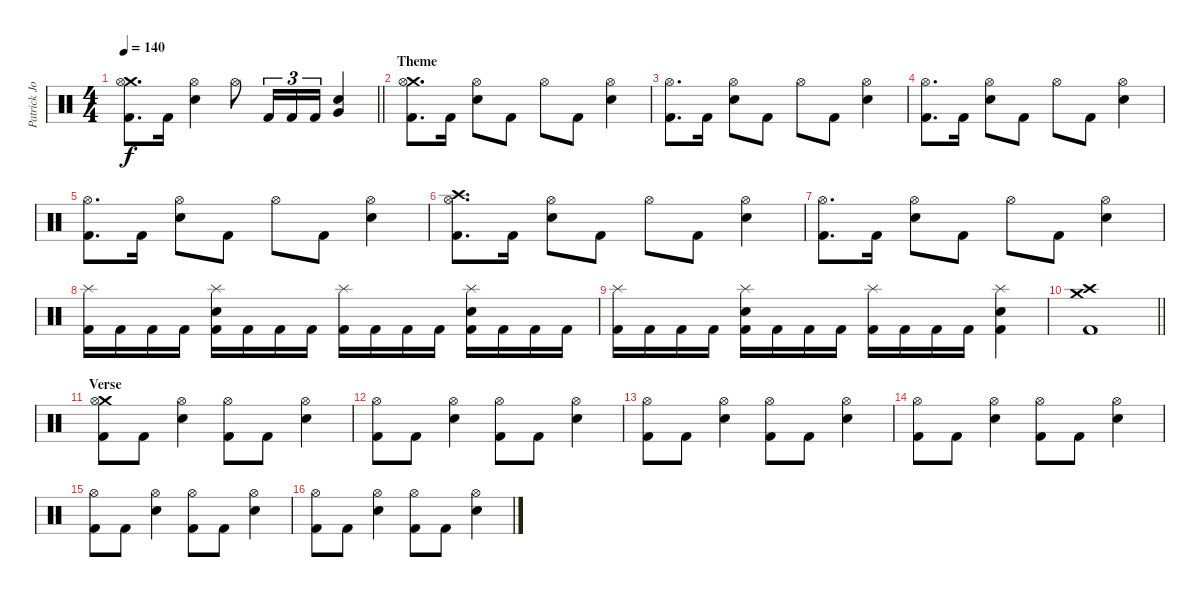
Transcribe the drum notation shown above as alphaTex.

\track ("Patrick Johansson" "Patrick Jo") {instrument percussion}
\staff {score}
\articulation defaults
\ts (4 4)
\tempo 140
\clef neutral
\barLineRight lightlight
\ks c
("Crash medium (hit)" "Hi-Hat (open)" "Kick (hit) 2").8{d dy f} "Kick (hit) 2".16 ("Hi-Hat (open)" "Snare (hit) 2").4 "Hi-Hat (open)".8 "Kick (hit) 2".16{tu (3 2)} "Kick (hit) 2".16{tu (3 2)} "Kick (hit) 2".16{tu (3 2)} ("Very Low Tom (hit)" "Snare (hit) 2").4 |
\section ("" "Theme")
("Crash medium (hit)" "Hi-Hat (open)" "Kick (hit) 2").8{d} "Kick (hit) 2".16 ("Hi-Hat (open)" "Snare (hit) 2").8 "Kick (hit) 2".8 "Hi-Hat (open)".8 "Kick (hit) 2".8 ("Hi-Hat (open)" "Snare (hit) 2").4 |
("Hi-Hat (open)" "Kick (hit) 2").8{d} "Kick (hit) 2".16 ("Hi-Hat (open)" "Snare (hit) 2").8 "Kick (hit) 2".8 "Hi-Hat (open)".8 "Kick (hit) 2".8 ("Hi-Hat (open)" "Snare (hit) 2").4 |
("Hi-Hat (open)" "Kick (hit) 2").8{d} "Kick (hit) 2".16 ("Hi-Hat (open)" "Snare (hit) 2").8 "Kick (hit) 2".8 "Hi-Hat (open)".8 "Kick (hit) 2".8 ("Hi-Hat (open)" "Snare (hit) 2").4 |
("Hi-Hat (open)" "Kick (hit) 2").8{d} "Kick (hit) 2".16 ("Hi-Hat (open)" "Snare (hit) 2").8 "Kick (hit) 2".8 "Hi-Hat (open)".8 "Kick (hit) 2".8 ("Hi-Hat (open)" "Snare (hit) 2").4 |
("Crash high (hit)" "Hi-Hat (open)" "Kick (hit) 2").8{d} "Kick (hit) 2".16 ("Hi-Hat (open)" "Snare (hit) 2").8 "Kick (hit) 2".8 "Hi-Hat (open)".8 "Kick (hit) 2".8 ("Hi-Hat (open)" "Snare (hit) 2").4 |
("Hi-Hat (open)" "Kick (hit) 2").8{d} "Kick (hit) 2".16 ("Hi-Hat (open)" "Snare (hit) 2").8 "Kick (hit) 2".8 "Hi-Hat (open)".8 "Kick (hit) 2".8 ("Hi-Hat (open)" "Snare (hit) 2").4 |
("Splash (hit)" "Kick (hit) 2").16 "Kick (hit) 2".16 "Kick (hit) 2".16 "Kick (hit) 2".16 ("Splash (hit)" "Snare (hit) 2" "Kick (hit) 2").16 "Kick (hit) 2".16 "Kick (hit) 2".16 "Kick (hit) 2".16 ("Splash (hit)" "Kick (hit) 2").16 "Kick (hit) 2".16 "Kick (hit) 2".16 "Kick (hit) 2".16 ("Splash (hit)" "Snare (hit) 2" "Kick (hit) 2").16 "Kick (hit) 2".16 "Kick (hit) 2".16 "Kick (hit) 2".16 |
("Splash (hit)" "Kick (hit) 2").16 "Kick (hit) 2".16 "Kick (hit) 2".16 "Kick (hit) 2".16 ("Splash (hit)" "Snare (hit) 2" "Kick (hit) 2").16 "Kick (hit) 2".16 "Kick (hit) 2".16 "Kick (hit) 2".16 ("Splash (hit)" "Kick (hit) 2").16 "Kick (hit) 2".16 "Kick (hit) 2".16 "Kick (hit) 2".16 ("Splash (hit)" "Snare (hit) 2" "Kick (hit) 2").4 |
\barLineRight lightlight
("Crash medium (hit)" "Crash high (hit)" "Kick (hit) 2").1 |
\section ("" "Verse")
("Crash medium (hit)" "Hi-Hat (open)" "Kick (hit) 2").8 "Kick (hit) 2".8 ("Hi-Hat (open)" "Snare (hit) 2").4 ("Hi-Hat (open)" "Kick (hit) 2").8 "Kick (hit) 2".8 ("Hi-Hat (open)" "Snare (hit) 2").4 |
("Hi-Hat (open)" "Kick (hit) 2").8 "Kick (hit) 2".8 ("Hi-Hat (open)" "Snare (hit) 2").4 ("Hi-Hat (open)" "Kick (hit) 2").8 "Kick (hit) 2".8 ("Hi-Hat (open)" "Snare (hit) 2").4 |
("Hi-Hat (open)" "Kick (hit) 2").8 "Kick (hit) 2".8 ("Hi-Hat (open)" "Snare (hit) 2").4 ("Hi-Hat (open)" "Kick (hit) 2").8 "Kick (hit) 2".8 ("Hi-Hat (open)" "Snare (hit) 2").4 |
("Hi-Hat (open)" "Kick (hit) 2").8 "Kick (hit) 2".8 ("Hi-Hat (open)" "Snare (hit) 2").4 ("Hi-Hat (open)" "Kick (hit) 2").8 "Kick (hit) 2".8 ("Hi-Hat (open)" "Snare (hit) 2").4 |
("Hi-Hat (open)" "Kick (hit) 2").8 "Kick (hit) 2".8 ("Hi-Hat (open)" "Snare (hit) 2").4 ("Hi-Hat (open)" "Kick (hit) 2").8 "Kick (hit) 2".8 ("Hi-Hat (open)" "Snare (hit) 2").4 |
("Hi-Hat (open)" "Kick (hit) 2").8 "Kick (hit) 2".8 ("Hi-Hat (open)" "Snare (hit) 2").4 ("Hi-Hat (open)" "Kick (hit) 2").8 "Kick (hit) 2".8 ("Hi-Hat (open)" "Snare (hit) 2").4
